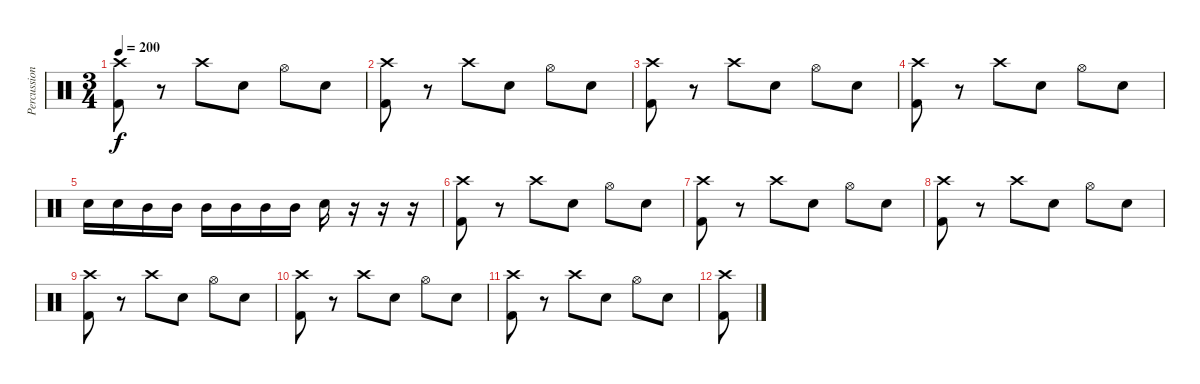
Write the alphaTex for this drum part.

\track ("Percussion" "Percussion") {instrument percussion}
\staff {score}
\articulation defaults
\ts (3 4)
\tempo 200
\clef neutral
\ks c
("Crash high (hit)" "Kick (hit) 2").8{dy f} r.8 "Crash high (hit)".8 "Snare (hit) 2".8 "Hi-Hat (open)".8 "Snare (hit) 2".8 |
("Crash high (hit)" "Kick (hit) 2").8 r.8 "Crash high (hit)".8 "Snare (hit) 2".8 "Hi-Hat (open)".8 "Snare (hit) 2".8 |
("Crash high (hit)" "Kick (hit) 2").8 r.8 "Crash high (hit)".8 "Snare (hit) 2".8 "Hi-Hat (open)".8 "Snare (hit) 2".8 |
("Crash high (hit)" "Kick (hit) 2").8 r.8 "Crash high (hit)".8 "Snare (hit) 2".8 "Hi-Hat (open)".8 "Snare (hit) 2".8 |
"Snare (hit) 2".16 "Snare (hit) 2".16 "Mid Tom (hit)".16 "Mid Tom (hit)".16 "Mid Tom (hit)".16 "Mid Tom (hit)".16 "Mid Tom (hit)".16 "Mid Tom (hit)".16 "Snare (hit) 2".16 r.16 r.16 r.16 |
("Crash high (hit)" "Kick (hit) 2").8 r.8 "Crash high (hit)".8 "Snare (hit) 2".8 "Hi-Hat (open)".8 "Snare (hit) 2".8 |
("Crash high (hit)" "Kick (hit) 2").8 r.8 "Crash high (hit)".8 "Snare (hit) 2".8 "Hi-Hat (open)".8 "Snare (hit) 2".8 |
("Crash high (hit)" "Kick (hit) 2").8 r.8 "Crash high (hit)".8 "Snare (hit) 2".8 "Hi-Hat (open)".8 "Snare (hit) 2".8 |
("Crash high (hit)" "Kick (hit) 2").8 r.8 "Crash high (hit)".8 "Snare (hit) 2".8 "Hi-Hat (open)".8 "Snare (hit) 2".8 |
("Crash high (hit)" "Kick (hit) 2").8 r.8 "Crash high (hit)".8 "Snare (hit) 2".8 "Hi-Hat (open)".8 "Snare (hit) 2".8 |
("Crash high (hit)" "Kick (hit) 2").8 r.8 "Crash high (hit)".8 "Snare (hit) 2".8 "Hi-Hat (open)".8 "Snare (hit) 2".8 |
("Crash high (hit)" "Kick (hit) 2").8
